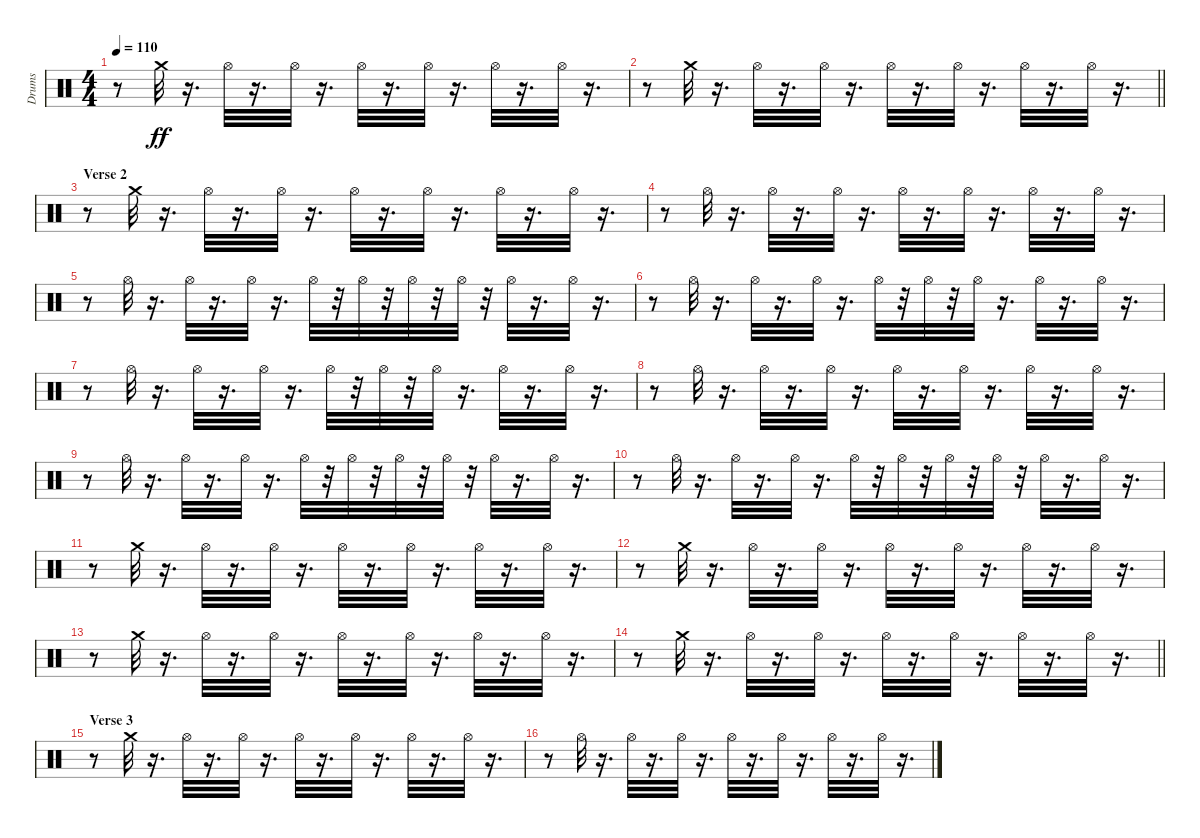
\track ("Drums" "Drums") {instrument percussion}
\staff {score}
\articulation defaults
\ts (4 4)
\tempo 110
\clef neutral
\ks c
r.8{dy ff} "Crash medium (hit)".32 r.16{d} "Hi-Hat (open)".32 r.16{d} "Hi-Hat (open)".32 r.16{d} "Hi-Hat (open)".32 r.16{d} "Hi-Hat (open)".32 r.16{d} "Hi-Hat (open)".32 r.16{d} "Hi-Hat (open)".32 r.16{d} |
\barLineRight lightlight
r.8 "Crash medium (hit)".32 r.16{d} "Hi-Hat (open)".32 r.16{d} "Hi-Hat (open)".32 r.16{d} "Hi-Hat (open)".32 r.16{d} "Hi-Hat (open)".32 r.16{d} "Hi-Hat (open)".32 r.16{d} "Hi-Hat (open)".32 r.16{d} |
\section ("" "Verse 2")
r.8 "Crash medium (hit)".32 r.16{d} "Hi-Hat (open)".32 r.16{d} "Hi-Hat (open)".32 r.16{d} "Hi-Hat (open)".32 r.16{d} "Hi-Hat (open)".32 r.16{d} "Hi-Hat (open)".32 r.16{d} "Hi-Hat (open)".32 r.16{d} |
r.8 "Hi-Hat (open)".32 r.16{d} "Hi-Hat (open)".32 r.16{d} "Hi-Hat (open)".32 r.16{d} "Hi-Hat (open)".32 r.16{d} "Hi-Hat (open)".32 r.16{d} "Hi-Hat (open)".32 r.16{d} "Hi-Hat (open)".32 r.16{d} |
r.8 "Hi-Hat (open)".32 r.16{d} "Hi-Hat (open)".32 r.16{d} "Hi-Hat (open)".32 r.16{d} "Hi-Hat (open)".32 r.32 "Hi-Hat (open)".32 r.32 "Hi-Hat (open)".32 r.32 "Hi-Hat (open)".32 r.32 "Hi-Hat (open)".32 r.16{d} "Hi-Hat (open)".32 r.16{d} |
r.8 "Hi-Hat (open)".32 r.16{d} "Hi-Hat (open)".32 r.16{d} "Hi-Hat (open)".32 r.16{d} "Hi-Hat (open)".32 r.32 "Hi-Hat (open)".32 r.32 "Hi-Hat (open)".32 r.16{d} "Hi-Hat (open)".32 r.16{d} "Hi-Hat (open)".32 r.16{d} |
r.8 "Hi-Hat (open)".32 r.16{d} "Hi-Hat (open)".32 r.16{d} "Hi-Hat (open)".32 r.16{d} "Hi-Hat (open)".32 r.32 "Hi-Hat (open)".32 r.32 "Hi-Hat (open)".32 r.16{d} "Hi-Hat (open)".32 r.16{d} "Hi-Hat (open)".32 r.16{d} |
r.8 "Hi-Hat (open)".32 r.16{d} "Hi-Hat (open)".32 r.16{d} "Hi-Hat (open)".32 r.16{d} "Hi-Hat (open)".32 r.16{d} "Hi-Hat (open)".32 r.16{d} "Hi-Hat (open)".32 r.16{d} "Hi-Hat (open)".32 r.16{d} |
r.8 "Hi-Hat (open)".32 r.16{d} "Hi-Hat (open)".32 r.16{d} "Hi-Hat (open)".32 r.16{d} "Hi-Hat (open)".32 r.32 "Hi-Hat (open)".32 r.32 "Hi-Hat (open)".32 r.32 "Hi-Hat (open)".32 r.32 "Hi-Hat (open)".32 r.16{d} "Hi-Hat (open)".32 r.16{d} |
r.8 "Hi-Hat (open)".32 r.16{d} "Hi-Hat (open)".32 r.16{d} "Hi-Hat (open)".32 r.16{d} "Hi-Hat (open)".32 r.32 "Hi-Hat (open)".32 r.32 "Hi-Hat (open)".32 r.32 "Hi-Hat (open)".32 r.32 "Hi-Hat (open)".32 r.16{d} "Hi-Hat (open)".32 r.16{d} |
r.8 "Crash medium (hit)".32 r.16{d} "Hi-Hat (open)".32 r.16{d} "Hi-Hat (open)".32 r.16{d} "Hi-Hat (open)".32 r.16{d} "Hi-Hat (open)".32 r.16{d} "Hi-Hat (open)".32 r.16{d} "Hi-Hat (open)".32 r.16{d} |
r.8 "Crash medium (hit)".32 r.16{d} "Hi-Hat (open)".32 r.16{d} "Hi-Hat (open)".32 r.16{d} "Hi-Hat (open)".32 r.16{d} "Hi-Hat (open)".32 r.16{d} "Hi-Hat (open)".32 r.16{d} "Hi-Hat (open)".32 r.16{d} |
r.8 "Crash medium (hit)".32 r.16{d} "Hi-Hat (open)".32 r.16{d} "Hi-Hat (open)".32 r.16{d} "Hi-Hat (open)".32 r.16{d} "Hi-Hat (open)".32 r.16{d} "Hi-Hat (open)".32 r.16{d} "Hi-Hat (open)".32 r.16{d} |
\barLineRight lightlight
r.8 "Crash medium (hit)".32 r.16{d} "Hi-Hat (open)".32 r.16{d} "Hi-Hat (open)".32 r.16{d} "Hi-Hat (open)".32 r.16{d} "Hi-Hat (open)".32 r.16{d} "Hi-Hat (open)".32 r.16{d} "Hi-Hat (open)".32 r.16{d} |
\section ("" "Verse 3")
r.8 "Crash medium (hit)".32 r.16{d} "Hi-Hat (open)".32 r.16{d} "Hi-Hat (open)".32 r.16{d} "Hi-Hat (open)".32 r.16{d} "Hi-Hat (open)".32 r.16{d} "Hi-Hat (open)".32 r.16{d} "Hi-Hat (open)".32 r.16{d} |
r.8 "Hi-Hat (open)".32 r.16{d} "Hi-Hat (open)".32 r.16{d} "Hi-Hat (open)".32 r.16{d} "Hi-Hat (open)".32 r.16{d} "Hi-Hat (open)".32 r.16{d} "Hi-Hat (open)".32 r.16{d} "Hi-Hat (open)".32 r.16{d}
